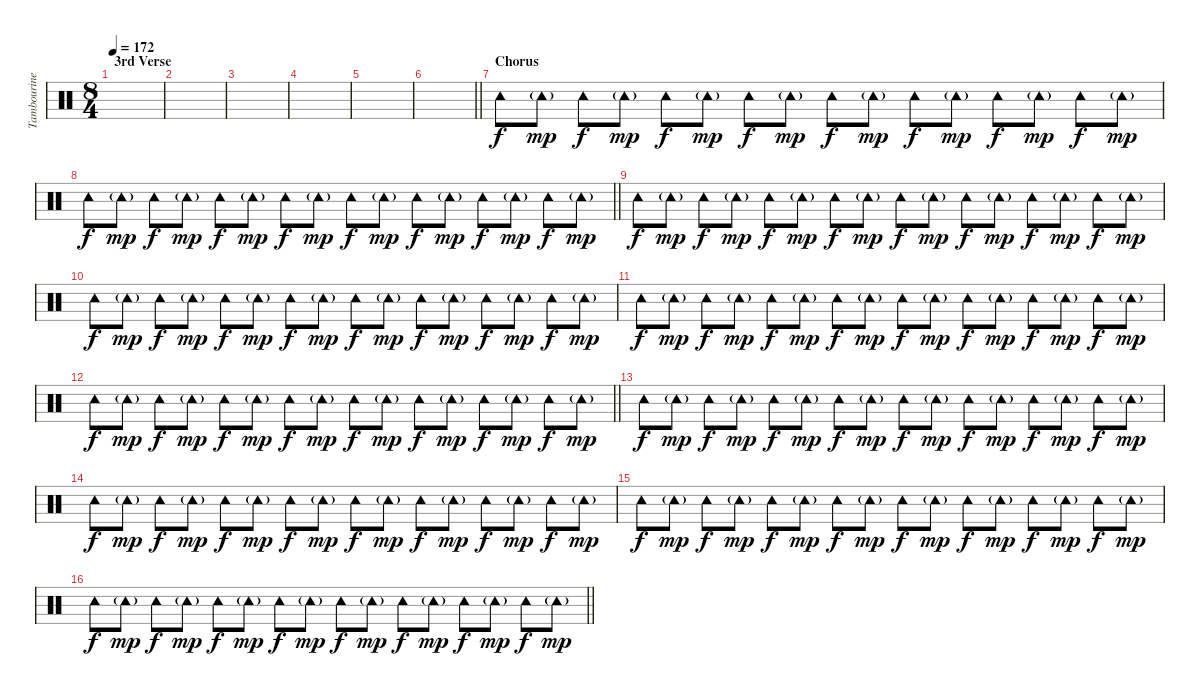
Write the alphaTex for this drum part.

\track ("Tambourine" "Tambourine") {instrument percussion}
\staff {score}
\articulation defaults
\ts (8 4)
\section ("" "3rd Verse")
\tempo 172
\clef neutral
\ks c
|
|
|
|
|
\barLineRight lightlight
|
\section ("" "Chorus")
"Tambourine (hit)".8{dy f volume 8} "Tambourine (hit)"{g}.8{dy mp} "Tambourine (hit)".8{dy f} "Tambourine (hit)"{g}.8{dy mp} "Tambourine (hit)".8{dy f} "Tambourine (hit)"{g}.8{dy mp} "Tambourine (hit)".8{dy f} "Tambourine (hit)"{g}.8{dy mp} "Tambourine (hit)".8{dy f} "Tambourine (hit)"{g}.8{dy mp} "Tambourine (hit)".8{dy f} "Tambourine (hit)"{g}.8{dy mp} "Tambourine (hit)".8{dy f} "Tambourine (hit)"{g}.8{dy mp} "Tambourine (hit)".8{dy f} "Tambourine (hit)"{g}.8{dy mp} |
\barLineRight lightlight "Tambourine (hit)".8{dy f} "Tambourine (hit)"{g}.8{dy mp} "Tambourine (hit)".8{dy f} "Tambourine (hit)"{g}.8{dy mp} "Tambourine (hit)".8{dy f} "Tambourine (hit)"{g}.8{dy mp} "Tambourine (hit)".8{dy f} "Tambourine (hit)"{g}.8{dy mp} "Tambourine (hit)".8{dy f} "Tambourine (hit)"{g}.8{dy mp} "Tambourine (hit)".8{dy f} "Tambourine (hit)"{g}.8{dy mp} "Tambourine (hit)".8{dy f} "Tambourine (hit)"{g}.8{dy mp} "Tambourine (hit)".8{dy f} "Tambourine (hit)"{g}.8{dy mp}
|
"Tambourine (hit)".8{dy f} "Tambourine (hit)"{g}.8{dy mp} "Tambourine (hit)".8{dy f} "Tambourine (hit)"{g}.8{dy mp} "Tambourine (hit)".8{dy f} "Tambourine (hit)"{g}.8{dy mp} "Tambourine (hit)".8{dy f} "Tambourine (hit)"{g}.8{dy mp} "Tambourine (hit)".8{dy f} "Tambourine (hit)"{g}.8{dy mp} "Tambourine (hit)".8{dy f} "Tambourine (hit)"{g}.8{dy mp} "Tambourine (hit)".8{dy f} "Tambourine (hit)"{g}.8{dy mp} "Tambourine (hit)".8{dy f} "Tambourine (hit)"{g}.8{dy mp} |
"Tambourine (hit)".8{dy f} "Tambourine (hit)"{g}.8{dy mp} "Tambourine (hit)".8{dy f} "Tambourine (hit)"{g}.8{dy mp} "Tambourine (hit)".8{dy f} "Tambourine (hit)"{g}.8{dy mp} "Tambourine (hit)".8{dy f} "Tambourine (hit)"{g}.8{dy mp} "Tambourine (hit)".8{dy f} "Tambourine (hit)"{g}.8{dy mp} "Tambourine (hit)".8{dy f} "Tambourine (hit)"{g}.8{dy mp} "Tambourine (hit)".8{dy f} "Tambourine (hit)"{g}.8{dy mp} "Tambourine (hit)".8{dy f} "Tambourine (hit)"{g}.8{dy mp} |
"Tambourine (hit)".8{dy f} "Tambourine (hit)"{g}.8{dy mp} "Tambourine (hit)".8{dy f} "Tambourine (hit)"{g}.8{dy mp} "Tambourine (hit)".8{dy f} "Tambourine (hit)"{g}.8{dy mp} "Tambourine (hit)".8{dy f} "Tambourine (hit)"{g}.8{dy mp} "Tambourine (hit)".8{dy f} "Tambourine (hit)"{g}.8{dy mp} "Tambourine (hit)".8{dy f} "Tambourine (hit)"{g}.8{dy mp} "Tambourine (hit)".8{dy f} "Tambourine (hit)"{g}.8{dy mp} "Tambourine (hit)".8{dy f} "Tambourine (hit)"{g}.8{dy mp} |
\barLineRight lightlight "Tambourine (hit)".8{dy f} "Tambourine (hit)"{g}.8{dy mp} "Tambourine (hit)".8{dy f} "Tambourine (hit)"{g}.8{dy mp} "Tambourine (hit)".8{dy f} "Tambourine (hit)"{g}.8{dy mp} "Tambourine (hit)".8{dy f} "Tambourine (hit)"{g}.8{dy mp} "Tambourine (hit)".8{dy f} "Tambourine (hit)"{g}.8{dy mp} "Tambourine (hit)".8{dy f} "Tambourine (hit)"{g}.8{dy mp} "Tambourine (hit)".8{dy f} "Tambourine (hit)"{g}.8{dy mp} "Tambourine (hit)".8{dy f} "Tambourine (hit)"{g}.8{dy mp}
|
"Tambourine (hit)".8{dy f} "Tambourine (hit)"{g}.8{dy mp} "Tambourine (hit)".8{dy f} "Tambourine (hit)"{g}.8{dy mp} "Tambourine (hit)".8{dy f} "Tambourine (hit)"{g}.8{dy mp} "Tambourine (hit)".8{dy f} "Tambourine (hit)"{g}.8{dy mp} "Tambourine (hit)".8{dy f} "Tambourine (hit)"{g}.8{dy mp} "Tambourine (hit)".8{dy f} "Tambourine (hit)"{g}.8{dy mp} "Tambourine (hit)".8{dy f} "Tambourine (hit)"{g}.8{dy mp} "Tambourine (hit)".8{dy f} "Tambourine (hit)"{g}.8{dy mp} |
"Tambourine (hit)".8{dy f} "Tambourine (hit)"{g}.8{dy mp} "Tambourine (hit)".8{dy f} "Tambourine (hit)"{g}.8{dy mp} "Tambourine (hit)".8{dy f} "Tambourine (hit)"{g}.8{dy mp} "Tambourine (hit)".8{dy f} "Tambourine (hit)"{g}.8{dy mp} "Tambourine (hit)".8{dy f} "Tambourine (hit)"{g}.8{dy mp} "Tambourine (hit)".8{dy f} "Tambourine (hit)"{g}.8{dy mp} "Tambourine (hit)".8{dy f} "Tambourine (hit)"{g}.8{dy mp} "Tambourine (hit)".8{dy f} "Tambourine (hit)"{g}.8{dy mp} |
"Tambourine (hit)".8{dy f volume 8} "Tambourine (hit)"{g}.8{dy mp} "Tambourine (hit)".8{dy f} "Tambourine (hit)"{g}.8{dy mp} "Tambourine (hit)".8{dy f} "Tambourine (hit)"{g}.8{dy mp} "Tambourine (hit)".8{dy f} "Tambourine (hit)"{g}.8{dy mp} "Tambourine (hit)".8{dy f} "Tambourine (hit)"{g}.8{dy mp} "Tambourine (hit)".8{dy f} "Tambourine (hit)"{g}.8{dy mp} "Tambourine (hit)".8{dy f} "Tambourine (hit)"{g}.8{dy mp} "Tambourine (hit)".8{dy f} "Tambourine (hit)"{g}.8{dy mp} |
\barLineRight lightlight "Tambourine (hit)".8{dy f} "Tambourine (hit)"{g}.8{dy mp} "Tambourine (hit)".8{dy f} "Tambourine (hit)"{g}.8{dy mp} "Tambourine (hit)".8{dy f} "Tambourine (hit)"{g}.8{dy mp} "Tambourine (hit)".8{dy f} "Tambourine (hit)"{g}.8{dy mp} "Tambourine (hit)".8{dy f} "Tambourine (hit)"{g}.8{dy mp} "Tambourine (hit)".8{dy f} "Tambourine (hit)"{g}.8{dy mp} "Tambourine (hit)".8{dy f} "Tambourine (hit)"{g}.8{dy mp} "Tambourine (hit)".8{dy f} "Tambourine (hit)"{g}.8{dy mp}
